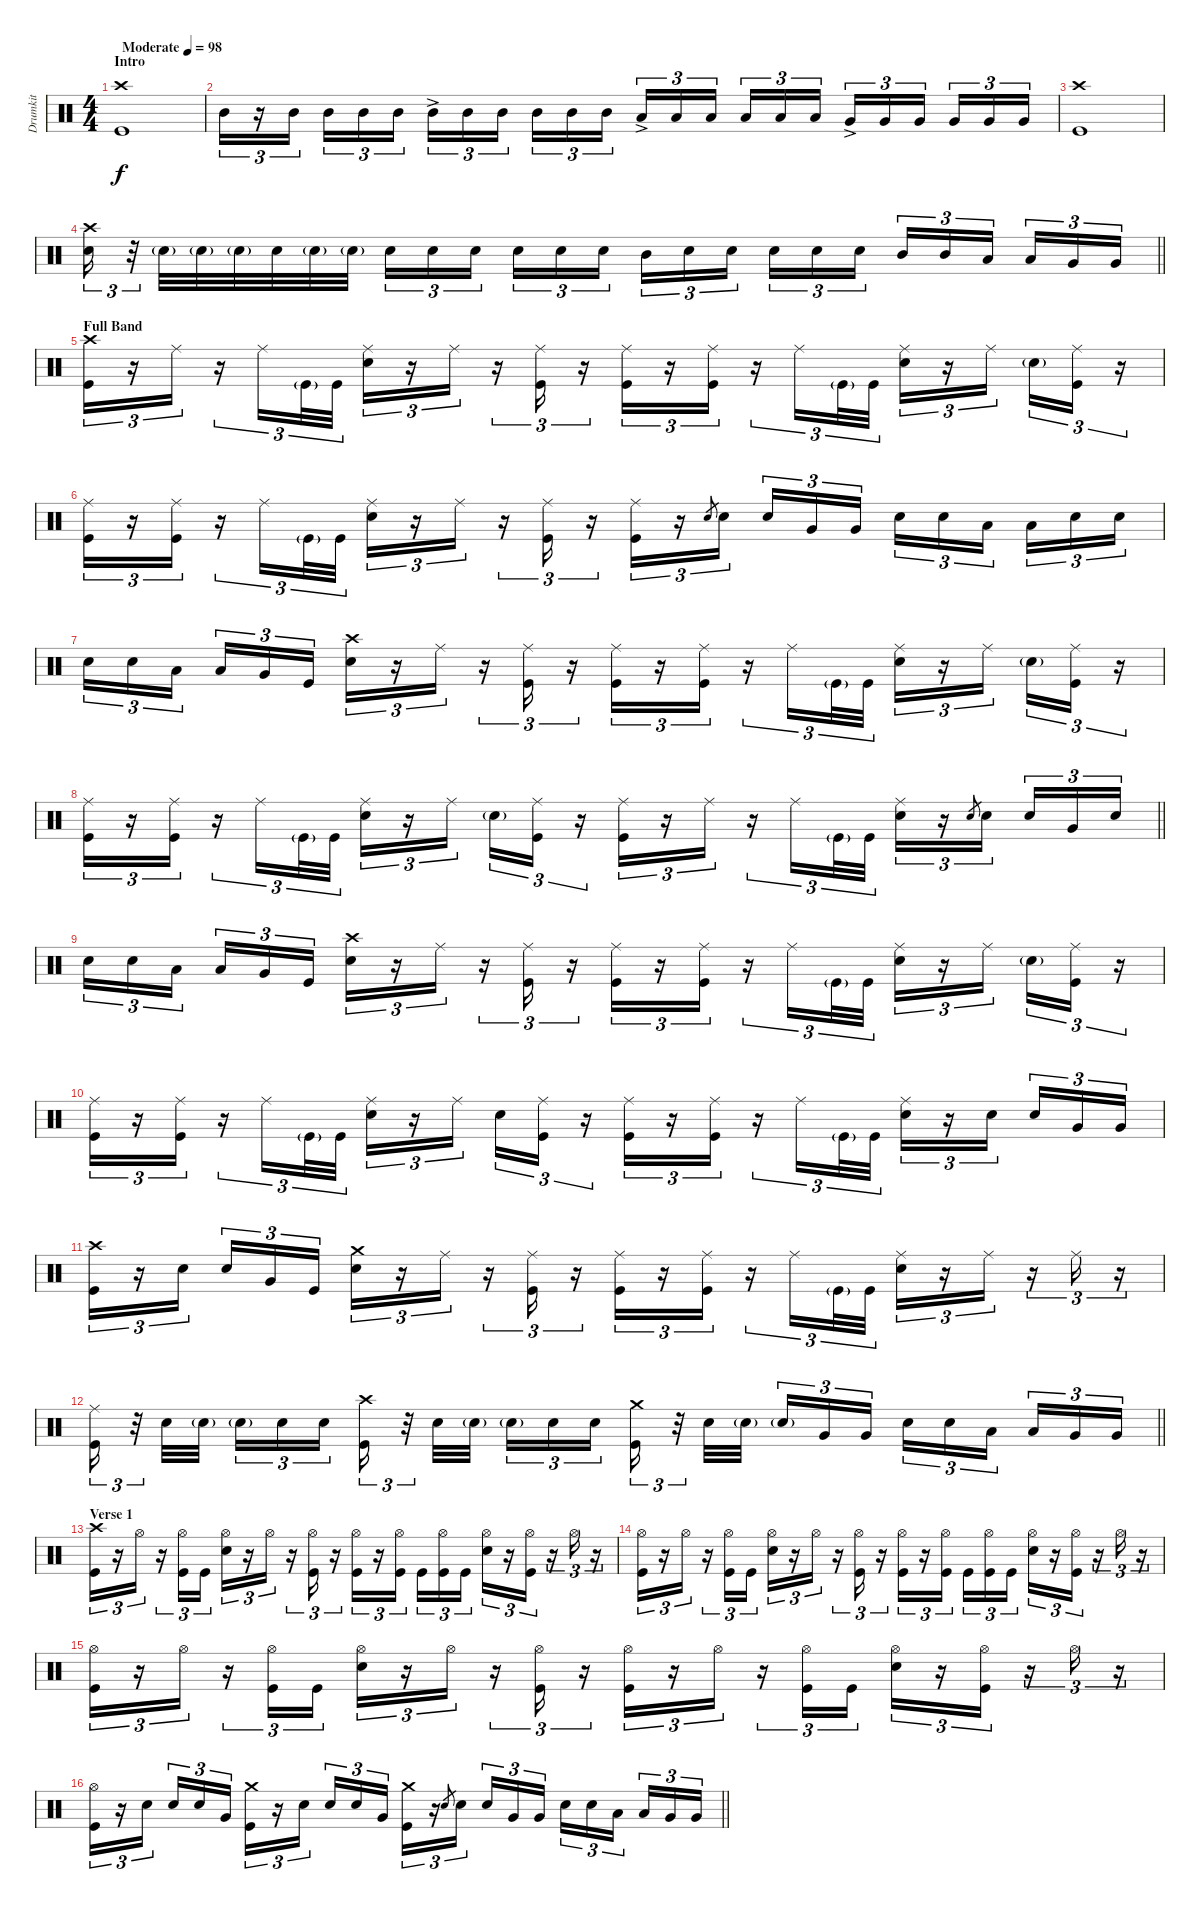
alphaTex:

\track ("Drumkit" "Drumkit") {instrument percussion}
\staff {score}
\articulation defaults
\ts (4 4)
\section ("" "Intro")
\tempo (98 "Moderate")
\clef neutral
\ks c
("Kick (hit)" "Crash high (hit)").1{dy f} |
"Mid Tom (hit)".16{tu (3 2)} r.16{tu (3 2)} "Mid Tom (hit)".16{tu (3 2)} "Mid Tom (hit)".16{tu (3 2)} "Mid Tom (hit)".16{tu (3 2)} "Mid Tom (hit)".16{tu (3 2)} "Mid Tom (hit)"{ac}.16{tu (3 2)} "Mid Tom (hit)".16{tu (3 2)} "Mid Tom (hit)".16{tu (3 2)} "Mid Tom (hit)".16{tu (3 2)} "Mid Tom (hit)".16{tu (3 2)} "Mid Tom (hit)".16{tu (3 2)} "Low Tom (hit)"{ac}.16{tu (3 2)} "Low Tom (hit)".16{tu (3 2)} "Low Tom (hit)".16{tu (3 2)} "Low Tom (hit)".16{tu (3 2)} "Low Tom (hit)".16{tu (3 2)} "Low Tom (hit)".16{tu (3 2)} "Very Low Tom (hit)"{ac}.16{tu (3 2)} "Very Low Tom (hit)".16{tu (3 2)} "Very Low Tom (hit)".16{tu (3 2)} "Very Low Tom (hit)".16{tu (3 2)} "Very Low Tom (hit)".16{tu (3 2)} "Very Low Tom (hit)".16{tu (3 2)} |
("Kick (hit)" "Crash high (hit)").1 |
\barLineRight lightlight
("Snare (hit) 2" "Crash high (hit)").16{tu (3 2)} r.32{tu (3 2)} "Snare (hit) 2"{g}.32 "Snare (hit) 2"{g}.32 "Snare (hit) 2"{g}.32 "Snare (hit) 2".32 "Snare (hit) 2"{g}.32 "Snare (hit) 2"{g}.32 "Snare (hit) 2".16{tu (3 2)} "Snare (hit) 2".16{tu (3 2)} "Snare (hit) 2".16{tu (3 2)} "Snare (hit) 2".16{tu (3 2)} "Snare (hit) 2".16{tu (3 2)} "Snare (hit) 2".16{tu (3 2)} "Mid Tom (hit)".16{tu (3 2)} "Snare (hit) 2".16{tu (3 2)} "Snare (hit) 2".16{tu (3 2)} "Snare (hit) 2".16{tu (3 2)} "Snare (hit) 2".16{tu (3 2)} "Snare (hit) 2".16{tu (3 2)} "Mid Tom (hit)".16{tu (3 2)} "Mid Tom (hit)".16{tu (3 2)} "Low Tom (hit)".16{tu (3 2)} "Low Tom (hit)".16{tu (3 2)} "Very Low Tom (hit)".16{tu (3 2)} "Very Low Tom (hit)".16{tu (3 2)} |
\section ("" "Full Band")
("Kick (hit)" "Crash high (hit)").16{tu (3 2)} r.16{tu (3 2)} "Ride (middle)".16{tu (3 2)} r.16{tu (3 2)} "Ride (middle)".16{tu (3 2)} "Kick (hit)"{g}.32{tu (3 2)} "Kick (hit)".32{tu (3 2)} ("Snare (hit) 2" "Ride (middle)").16{tu (3 2)} r.16{tu (3 2)} "Ride (middle)".16{tu (3 2)} r.16{tu (3 2)} ("Kick (hit)" "Ride (middle)").16{tu (3 2)} r.16{tu (3 2)} ("Ride (middle)" "Kick (hit)").16{tu (3 2)} r.16{tu (3 2)} ("Ride (middle)" "Kick (hit)").16{tu (3 2)} r.16{tu (3 2)} "Ride (middle)".16{tu (3 2)} "Kick (hit)"{g}.32{tu (3 2)} "Kick (hit)".32{tu (3 2)} ("Ride (middle)" "Snare (hit) 2").16{tu (3 2)} r.16{tu (3 2)} "Ride (middle)".16{tu (3 2)} "Snare (hit) 2"{g}.16{tu (3 2)} ("Ride (middle)" "Kick (hit)").16{tu (3 2)} r.16{tu (3 2)} |
("Kick (hit)" "Ride (middle)").16{tu (3 2)} r.16{tu (3 2)} ("Ride (middle)" "Kick (hit)").16{tu (3 2)} r.16{tu (3 2)} "Ride (middle)".16{tu (3 2)} "Kick (hit)"{g}.32{tu (3 2)} "Kick (hit)".32{tu (3 2)} ("Snare (hit) 2" "Ride (middle)").16{tu (3 2)} r.16{tu (3 2)} "Ride (middle)".16{tu (3 2)} r.16{tu (3 2)} ("Ride (middle)" "Kick (hit)").16{tu (3 2)} r.16{tu (3 2)} ("Kick (hit)" "Ride (middle)").16{tu (3 2)} r.16{tu (3 2)} "Snare (hit)".8{gr} "Snare (hit) 2".16{tu (3 2)} "Snare (hit) 2".16{tu (3 2)} "Very Low Tom (hit)".16{tu (3 2)} "Very Low Tom (hit)".16{tu (3 2)} "Snare (hit) 2".16{tu (3 2)} "Snare (hit) 2".16{tu (3 2)} "Low Tom (hit)".16{tu (3 2)} "Low Tom (hit)".16{tu (3 2)} "Snare (hit) 2".16{tu (3 2)} "Snare (hit) 2".16{tu (3 2)} |
"Snare (hit) 2".16{tu (3 2)} "Snare (hit) 2".16{tu (3 2)} "Low Tom (hit)".16{tu (3 2)} "Low Tom (hit)".16{tu (3 2)} "Very Low Tom (hit)".16{tu (3 2)} "Kick (hit)".16{tu (3 2)} ("Snare (hit) 2" "Crash high (hit)").16{tu (3 2)} r.16{tu (3 2)} "Ride (middle)".16{tu (3 2)} r.16{tu (3 2)} ("Kick (hit)" "Ride (middle)").16{tu (3 2)} r.16{tu (3 2)} ("Kick (hit)" "Ride (middle)").16{tu (3 2)} r.16{tu (3 2)} ("Ride (middle)" "Kick (hit)").16{tu (3 2)} r.16{tu (3 2)} "Ride (middle)".16{tu (3 2)} "Kick (hit)"{g}.32{tu (3 2)} "Kick (hit)".32{tu (3 2)} ("Ride (middle)" "Snare (hit) 2").16{tu (3 2)} r.16{tu (3 2)} "Ride (middle)".16{tu (3 2)} "Snare (hit) 2"{g}.16{tu (3 2)} ("Ride (middle)" "Kick (hit)").16{tu (3 2)} r.16{tu (3 2)} |
\barLineRight lightlight
("Kick (hit)" "Ride (middle)").16{tu (3 2)} r.16{tu (3 2)} ("Ride (middle)" "Kick (hit)").16{tu (3 2)} r.16{tu (3 2)} "Ride (middle)".16{tu (3 2)} "Kick (hit)"{g}.32{tu (3 2)} "Kick (hit)".32{tu (3 2)} ("Snare (hit) 2" "Ride (middle)").16{tu (3 2)} r.16{tu (3 2)} "Ride (middle)".16{tu (3 2)} "Snare (hit) 2"{g}.16{tu (3 2)} ("Kick (hit)" "Ride (middle)").16{tu (3 2)} r.16{tu (3 2)} ("Kick (hit)" "Ride (middle)").16{tu (3 2)} r.16{tu (3 2)} "Ride (middle)".16{tu (3 2)} r.16{tu (3 2)} "Ride (middle)".16{tu (3 2)} "Kick (hit)"{g}.32{tu (3 2)} "Kick (hit)".32{tu (3 2)} ("Ride (middle)" "Snare (hit) 2").16{tu (3 2)} r.16{tu (3 2)} "Snare (hit)".8{gr} "Snare (hit) 2".16{tu (3 2)} "Snare (hit) 2".16{tu (3 2)} "Very Low Tom (hit)".16{tu (3 2)} "Snare (hit) 2".16{tu (3 2)} |
"Snare (hit) 2".16{tu (3 2)} "Snare (hit) 2".16{tu (3 2)} "Low Tom (hit)".16{tu (3 2)} "Low Tom (hit)".16{tu (3 2)} "Very Low Tom (hit)".16{tu (3 2)} "Kick (hit)".16{tu (3 2)} ("Snare (hit) 2" "Crash high (hit)").16{tu (3 2)} r.16{tu (3 2)} "Ride (middle)".16{tu (3 2)} r.16{tu (3 2)} ("Kick (hit)" "Ride (middle)").16{tu (3 2)} r.16{tu (3 2)} ("Kick (hit)" "Ride (middle)").16{tu (3 2)} r.16{tu (3 2)} ("Ride (middle)" "Kick (hit)").16{tu (3 2)} r.16{tu (3 2)} "Ride (middle)".16{tu (3 2)} "Kick (hit)"{g}.32{tu (3 2)} "Kick (hit)".32{tu (3 2)} ("Ride (middle)" "Snare (hit) 2").16{tu (3 2)} r.16{tu (3 2)} "Ride (middle)".16{tu (3 2)} "Snare (hit) 2"{g}.16{tu (3 2)} ("Ride (middle)" "Kick (hit)").16{tu (3 2)} r.16{tu (3 2)} |
("Kick (hit)" "Ride (middle)").16{tu (3 2)} r.16{tu (3 2)} ("Ride (middle)" "Kick (hit)").16{tu (3 2)} r.16{tu (3 2)} "Ride (middle)".16{tu (3 2)} "Kick (hit)"{g}.32{tu (3 2)} "Kick (hit)".32{tu (3 2)} ("Snare (hit) 2" "Ride (middle)").16{tu (3 2)} r.16{tu (3 2)} "Ride (middle)".16{tu (3 2)} "Snare (hit) 2".16{tu (3 2)} ("Ride (middle)" "Kick (hit)").16{tu (3 2)} r.16{tu (3 2)} ("Kick (hit)" "Ride (middle)").16{tu (3 2)} r.16{tu (3 2)} ("Ride (middle)" "Kick (hit)").16{tu (3 2)} r.16{tu (3 2)} "Ride (middle)".16{tu (3 2)} "Kick (hit)"{g}.32{tu (3 2)} "Kick (hit)".32{tu (3 2)} ("Ride (middle)" "Snare (hit) 2").16{tu (3 2)} r.16{tu (3 2)} "Snare (hit) 2".16{tu (3 2)} "Snare (hit) 2".16{tu (3 2)} "Very Low Tom (hit)".16{tu (3 2)} "Very Low Tom (hit)".16{tu (3 2)} |
("Kick (hit)" "Crash high (hit)").16{tu (3 2)} r.16{tu (3 2)} "Snare (hit) 2".16{tu (3 2)} "Snare (hit) 2".16{tu (3 2)} "Very Low Tom (hit)".16{tu (3 2)} "Kick (hit)".16{tu (3 2)} ("Snare (hit) 2" "Crash medium (hit)").16{tu (3 2)} r.16{tu (3 2)} "Ride (middle)".16{tu (3 2)} r.16{tu (3 2)} ("Kick (hit)" "Ride (middle)").16{tu (3 2)} r.16{tu (3 2)} ("Kick (hit)" "Ride (middle)").16{tu (3 2)} r.16{tu (3 2)} ("Ride (middle)" "Kick (hit)").16{tu (3 2)} r.16{tu (3 2)} "Ride (middle)".16{tu (3 2)} "Kick (hit)"{g}.32{tu (3 2)} "Kick (hit)".32{tu (3 2)} ("Ride (middle)" "Snare (hit) 2").16{tu (3 2)} r.16{tu (3 2)} "Ride (middle)".16{tu (3 2)} r.16{tu (3 2)} "Ride (middle)".16{tu (3 2)} r.16{tu (3 2)} |
\barLineRight lightlight
("Kick (hit)" "Ride (middle)").16{tu (3 2)} r.32{tu (3 2)} "Snare (hit) 2".32 "Snare (hit) 2"{g}.32 "Snare (hit) 2"{g}.16{tu (3 2)} "Snare (hit) 2".16{tu (3 2)} "Snare (hit) 2".16{tu (3 2)} ("Kick (hit)" "Crash high (hit)").16{tu (3 2)} r.32{tu (3 2)} "Snare (hit) 2".32 "Snare (hit) 2"{g}.32 "Snare (hit) 2"{g}.16{tu (3 2)} "Snare (hit) 2".16{tu (3 2)} "Snare (hit) 2".16{tu (3 2)} ("Kick (hit)" "Crash medium (hit)").16{tu (3 2)} r.32{tu (3 2)} "Snare (hit) 2".32 "Snare (hit) 2"{g}.32 "Snare (hit) 2"{g}.16{tu (3 2)} "Very Low Tom (hit)".16{tu (3 2)} "Very Low Tom (hit)".16{tu (3 2)} "Snare (hit) 2".16{tu (3 2)} "Snare (hit) 2".16{tu (3 2)} "Low Tom (hit)".16{tu (3 2)} "Low Tom (hit)".16{tu (3 2)} "Very Low Tom (hit)".16{tu (3 2)} "Very Low Tom (hit)".16{tu (3 2)} |
\section ("" "Verse 1")
("Kick (hit)" "Crash high (hit)").16{tu (3 2)} r.16{tu (3 2)} "Hi-Hat (open)".16{tu (3 2)} r.16{tu (3 2)} ("Hi-Hat (open)" "Kick (hit)").16{tu (3 2)} "Kick (hit)".16{tu (3 2)} ("Snare (hit) 2" "Hi-Hat (open)").16{tu (3 2)} r.16{tu (3 2)} "Hi-Hat (open)".16{tu (3 2)} r.16{tu (3 2)} ("Kick (hit)" "Hi-Hat (open)").16{tu (3 2)} r.16{tu (3 2)} ("Kick (hit)" "Hi-Hat (open)").16{tu (3 2)} r.16{tu (3 2)} ("Hi-Hat (open)" "Kick (hit)").16{tu (3 2)} "Kick (hit)".16{tu (3 2)} ("Kick (hit)" "Hi-Hat (open)").16{tu (3 2)} "Kick (hit)".16{tu (3 2)} ("Hi-Hat (open)" "Snare (hit) 2").16{tu (3 2)} r.16{tu (3 2)} ("Kick (hit)" "Hi-Hat (open)").16{tu (3 2)} r.16{tu (3 2)} "Hi-Hat (open)".16{tu (3 2)} r.16{tu (3 2)} |
("Kick (hit)" "Hi-Hat (open)").16{tu (3 2)} r.16{tu (3 2)} "Hi-Hat (open)".16{tu (3 2)} r.16{tu (3 2)} ("Kick (hit)" "Hi-Hat (open)").16{tu (3 2)} "Kick (hit)".16{tu (3 2)} ("Snare (hit) 2" "Hi-Hat (open)").16{tu (3 2)} r.16{tu (3 2)} "Hi-Hat (open)".16{tu (3 2)} r.16{tu (3 2)} ("Kick (hit)" "Hi-Hat (open)").16{tu (3 2)} r.16{tu (3 2)} ("Kick (hit)" "Hi-Hat (open)").16{tu (3 2)} r.16{tu (3 2)} ("Hi-Hat (open)" "Kick (hit)").16{tu (3 2)} "Kick (hit)".16{tu (3 2)} ("Kick (hit)" "Hi-Hat (open)").16{tu (3 2)} "Kick (hit)".16{tu (3 2)} ("Hi-Hat (open)" "Snare (hit) 2").16{tu (3 2)} r.16{tu (3 2)} ("Kick (hit)" "Hi-Hat (open)").16{tu (3 2)} r.16{tu (3 2)} "Hi-Hat (open)".16{tu (3 2)} r.16{tu (3 2)} |
("Kick (hit)" "Hi-Hat (open)").16{tu (3 2)} r.16{tu (3 2)} "Hi-Hat (open)".16{tu (3 2)} r.16{tu (3 2)} ("Kick (hit)" "Hi-Hat (open)").16{tu (3 2)} "Kick (hit)".16{tu (3 2)} ("Snare (hit) 2" "Hi-Hat (open)").16{tu (3 2)} r.16{tu (3 2)} "Hi-Hat (open)".16{tu (3 2)} r.16{tu (3 2)} ("Kick (hit)" "Hi-Hat (open)").16{tu (3 2)} r.16{tu (3 2)} ("Kick (hit)" "Hi-Hat (open)").16{tu (3 2)} r.16{tu (3 2)} "Hi-Hat (open)".16{tu (3 2)} r.16{tu (3 2)} ("Kick (hit)" "Hi-Hat (open)").16{tu (3 2)} "Kick (hit)".16{tu (3 2)} ("Hi-Hat (open)" "Snare (hit) 2").16{tu (3 2)} r.16{tu (3 2)} ("Kick (hit)" "Hi-Hat (open)").16{tu (3 2)} r.16{tu (3 2)} "Hi-Hat (open)".16{tu (3 2)} r.16{tu (3 2)} |
\barLineRight lightlight
("Kick (hit)" "Hi-Hat (open)").16{tu (3 2)} r.16{tu (3 2)} "Snare (hit) 2".16{tu (3 2)} "Snare (hit) 2".16{tu (3 2)} "Snare (hit) 2".16{tu (3 2)} "Very Low Tom (hit)".16{tu (3 2)} ("Kick (hit)" "Crash medium (hit)").16{tu (3 2)} r.16{tu (3 2)} "Snare (hit) 2".16{tu (3 2)} "Snare (hit) 2".16{tu (3 2)} "Snare (hit) 2".16{tu (3 2)} "Very Low Tom (hit)".16{tu (3 2)} ("Kick (hit)" "Crash medium (hit)").16{tu (3 2)} r.16{tu (3 2)} "Snare (hit)".8{gr} "Snare (hit) 2".16{tu (3 2)} "Snare (hit) 2".16{tu (3 2)} "Very Low Tom (hit)".16{tu (3 2)} "Very Low Tom (hit)".16{tu (3 2)} "Snare (hit) 2".16{tu (3 2)} "Snare (hit) 2".16{tu (3 2)} "Low Tom (hit)".16{tu (3 2)} "Low Tom (hit)".16{tu (3 2)} "Very Low Tom (hit)".16{tu (3 2)} "Very Low Tom (hit)".16{tu (3 2)}
